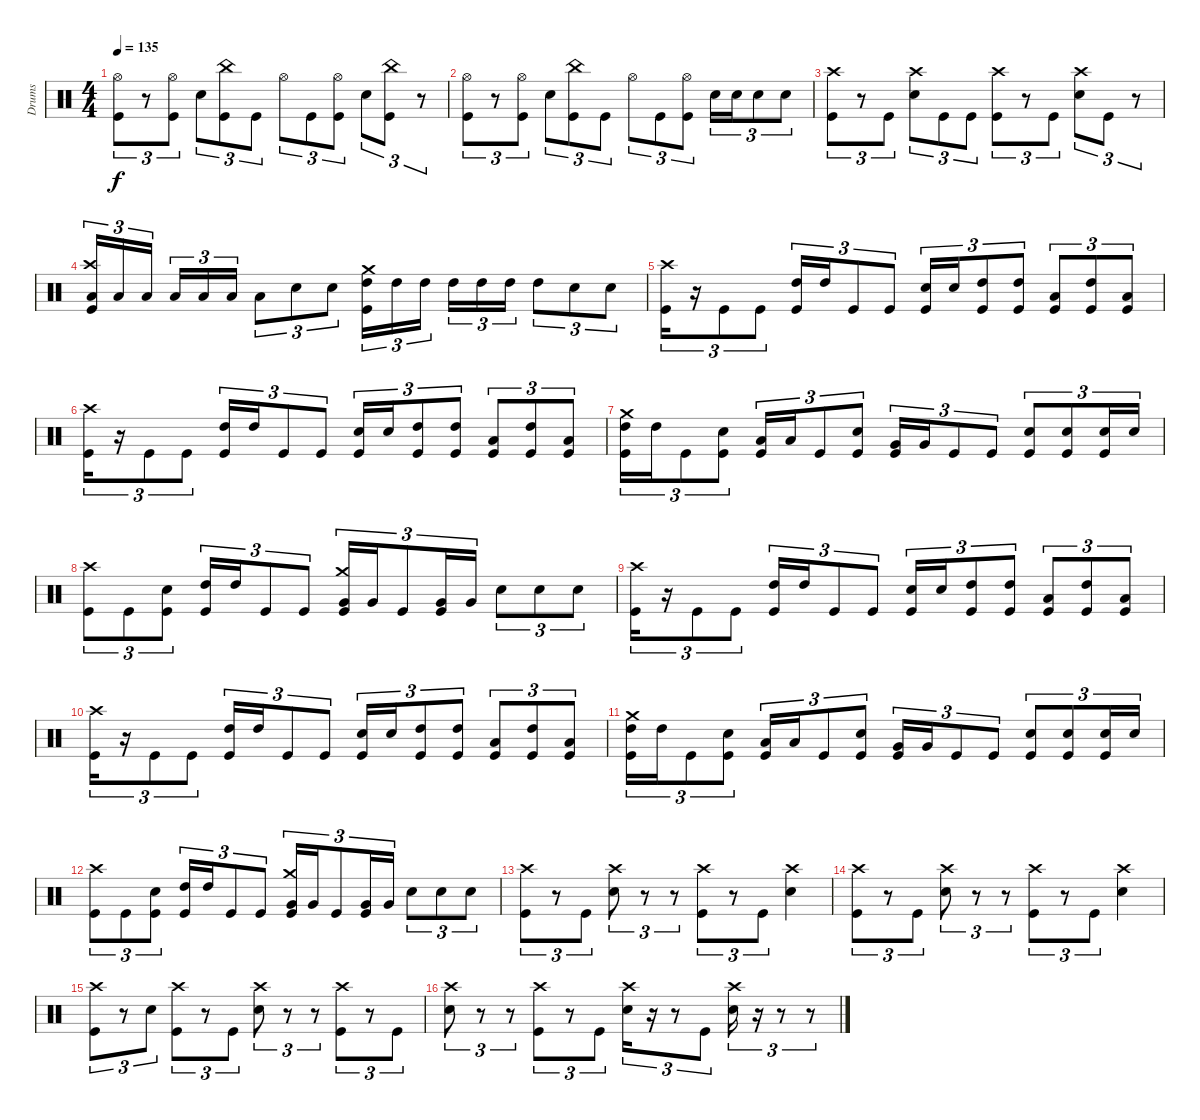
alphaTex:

\track ("Drums" "Drums") {instrument percussion}
\staff {score}
\articulation defaults
\ts (4 4)
\tempo 135
\clef neutral
\ks c
("Kick (hit)" "Hi-Hat (open)").8{tu (3 2) dy f} r.8{tu (3 2)} ("Kick (hit)" "Hi-Hat (open)").8{tu (3 2)} "Snare (hit) 2".8{tu (3 2)} ("Kick (hit)" "China (hit)").8{tu (3 2)} "Kick (hit)".8{tu (3 2)} "Hi-Hat (open)".8{tu (3 2)} "Kick (hit)".8{tu (3 2)} ("Kick (hit)" "Hi-Hat (open)").8{tu (3 2)} "Snare (hit) 2".8{tu (3 2)} ("Kick (hit)" "China (hit)").8{tu (3 2)} r.8{tu (3 2)} |
("Kick (hit)" "Hi-Hat (open)").8{tu (3 2)} r.8{tu (3 2)} ("Kick (hit)" "Hi-Hat (open)").8{tu (3 2)} "Snare (hit) 2".8{tu (3 2)} ("Kick (hit)" "China (hit)").8{tu (3 2)} "Kick (hit)".8{tu (3 2)} "Hi-Hat (open)".8{tu (3 2)} "Kick (hit)".8{tu (3 2)} ("Kick (hit)" "Hi-Hat (open)").8{tu (3 2)} "Snare (hit) 2".16{tu (3 2)} "Snare (hit) 2".16{tu (3 2)} "Snare (hit) 2".8{tu (3 2)} "Snare (hit) 2".8{tu (3 2)} |
("Kick (hit)" "Crash high (hit)").8{tu (3 2)} r.8{tu (3 2)} "Kick (hit)".8{tu (3 2)} ("Snare (hit) 2" "Crash high (hit)").8{tu (3 2)} "Kick (hit)".8{tu (3 2)} "Kick (hit)".8{tu (3 2)} ("Kick (hit)" "Crash high (hit)").8{tu (3 2)} r.8{tu (3 2)} "Kick (hit)".8{tu (3 2)} ("Snare (hit) 2" "Crash high (hit)").8{tu (3 2)} "Kick (hit)".8{tu (3 2)} r.8{tu (3 2)} |
("Kick (hit)" "Low Tom (hit)" "Crash high (hit)").16{tu (3 2)} "Low Tom (hit)".16{tu (3 2)} "Low Tom (hit)".16{tu (3 2)} "Low Tom (hit)".16{tu (3 2)} "Low Tom (hit)".16{tu (3 2)} "Low Tom (hit)".16{tu (3 2)} "Low Tom (hit)".8{tu (3 2)} "Snare (hit) 2".8{tu (3 2)} "Snare (hit) 2".8{tu (3 2)} ("Kick (hit)" "High Tom (hit)" "Crash medium (hit)").16{tu (3 2)} "High Tom (hit)".16{tu (3 2)} "High Tom (hit)".16{tu (3 2)} "High Tom (hit)".16{tu (3 2)} "High Tom (hit)".16{tu (3 2)} "High Tom (hit)".16{tu (3 2)} "High Tom (hit)".8{tu (3 2)} "Snare (hit) 2".8{tu (3 2)} "Snare (hit) 2".8{tu (3 2)} |
("Kick (hit)" "Crash high (hit)").16{tu (3 2)} r.16{tu (3 2)} "Kick (hit)".8{tu (3 2)} "Kick (hit)".8{tu (3 2)} ("Kick (hit)" "High Tom (hit)").16{tu (3 2)} "High Tom (hit)".16{tu (3 2)} "Kick (hit)".8{tu (3 2)} "Kick (hit)".8{tu (3 2)} ("Kick (hit)" "Snare (hit) 2").16{tu (3 2)} "Snare (hit) 2".16{tu (3 2)} ("Kick (hit)" "High Tom (hit)").8{tu (3 2)} ("Kick (hit)" "High Tom (hit)").8{tu (3 2)} ("Kick (hit)" "Low Tom (hit)").8{tu (3 2)} ("Kick (hit)" "High Tom (hit)").8{tu (3 2)} ("Kick (hit)" "Low Tom (hit)").8{tu (3 2)} |
("Kick (hit)" "Crash high (hit)").16{tu (3 2)} r.16{tu (3 2)} "Kick (hit)".8{tu (3 2)} "Kick (hit)".8{tu (3 2)} ("Kick (hit)" "High Tom (hit)").16{tu (3 2)} "High Tom (hit)".16{tu (3 2)} "Kick (hit)".8{tu (3 2)} "Kick (hit)".8{tu (3 2)} ("Kick (hit)" "Snare (hit) 2").16{tu (3 2)} "Snare (hit) 2".16{tu (3 2)} ("Kick (hit)" "High Tom (hit)").8{tu (3 2)} ("Kick (hit)" "High Tom (hit)").8{tu (3 2)} ("Kick (hit)" "Low Tom (hit)").8{tu (3 2)} ("Kick (hit)" "High Tom (hit)").8{tu (3 2)} ("Kick (hit)" "Low Tom (hit)").8{tu (3 2)} |
("Kick (hit)" "High Tom (hit)" "Crash medium (hit)").16{tu (3 2)} "High Tom (hit)".16{tu (3 2)} "Kick (hit)".8{tu (3 2)} ("Kick (hit)" "Snare (hit) 2").8{tu (3 2)} ("Kick (hit)" "Low Tom (hit)").16{tu (3 2)} "Low Tom (hit)".16{tu (3 2)} "Kick (hit)".8{tu (3 2)} ("Kick (hit)" "Snare (hit) 2").8{tu (3 2)} ("Kick (hit)" "Very Low Tom (hit)").16{tu (3 2)} "Very Low Tom (hit)".16{tu (3 2)} "Kick (hit)".8{tu (3 2)} "Kick (hit)".8{tu (3 2)} ("Kick (hit)" "Snare (hit) 2").8{tu (3 2)} ("Kick (hit)" "Snare (hit) 2").8{tu (3 2)} ("Kick (hit)" "Snare (hit) 2").16{tu (3 2)} "Snare (hit) 2".16{tu (3 2)} |
("Kick (hit)" "Crash high (hit)").8{tu (3 2)} "Kick (hit)".8{tu (3 2)} ("Kick (hit)" "Snare (hit) 2").8{tu (3 2)} ("Kick (hit)" "High Tom (hit)").16{tu (3 2)} "High Tom (hit)".16{tu (3 2)} "Kick (hit)".8{tu (3 2)} "Kick (hit)".8{tu (3 2)} ("Kick (hit)" "Very Low Tom (hit)" "Crash medium (hit)").16{tu (3 2)} "Very Low Tom (hit)".16{tu (3 2)} "Kick (hit)".8{tu (3 2)} ("Kick (hit)" "Very Low Tom (hit)").16{tu (3 2)} "Very Low Tom (hit)".16{tu (3 2)} "Snare (hit) 2".8{tu (3 2)} "Snare (hit) 2".8{tu (3 2)} "Snare (hit) 2".8{tu (3 2)} |
("Kick (hit)" "Crash high (hit)").16{tu (3 2)} r.16{tu (3 2)} "Kick (hit)".8{tu (3 2)} "Kick (hit)".8{tu (3 2)} ("Kick (hit)" "High Tom (hit)").16{tu (3 2)} "High Tom (hit)".16{tu (3 2)} "Kick (hit)".8{tu (3 2)} "Kick (hit)".8{tu (3 2)} ("Kick (hit)" "Snare (hit) 2").16{tu (3 2)} "Snare (hit) 2".16{tu (3 2)} ("Kick (hit)" "High Tom (hit)").8{tu (3 2)} ("Kick (hit)" "High Tom (hit)").8{tu (3 2)} ("Kick (hit)" "Low Tom (hit)").8{tu (3 2)} ("Kick (hit)" "High Tom (hit)").8{tu (3 2)} ("Kick (hit)" "Low Tom (hit)").8{tu (3 2)} |
("Kick (hit)" "Crash high (hit)").16{tu (3 2)} r.16{tu (3 2)} "Kick (hit)".8{tu (3 2)} "Kick (hit)".8{tu (3 2)} ("Kick (hit)" "High Tom (hit)").16{tu (3 2)} "High Tom (hit)".16{tu (3 2)} "Kick (hit)".8{tu (3 2)} "Kick (hit)".8{tu (3 2)} ("Kick (hit)" "Snare (hit) 2").16{tu (3 2)} "Snare (hit) 2".16{tu (3 2)} ("Kick (hit)" "High Tom (hit)").8{tu (3 2)} ("Kick (hit)" "High Tom (hit)").8{tu (3 2)} ("Kick (hit)" "Low Tom (hit)").8{tu (3 2)} ("Kick (hit)" "High Tom (hit)").8{tu (3 2)} ("Kick (hit)" "Low Tom (hit)").8{tu (3 2)} |
("Kick (hit)" "High Tom (hit)" "Crash medium (hit)").16{tu (3 2)} "High Tom (hit)".16{tu (3 2)} "Kick (hit)".8{tu (3 2)} ("Kick (hit)" "Snare (hit) 2").8{tu (3 2)} ("Kick (hit)" "Low Tom (hit)").16{tu (3 2)} "Low Tom (hit)".16{tu (3 2)} "Kick (hit)".8{tu (3 2)} ("Kick (hit)" "Snare (hit) 2").8{tu (3 2)} ("Kick (hit)" "Very Low Tom (hit)").16{tu (3 2)} "Very Low Tom (hit)".16{tu (3 2)} "Kick (hit)".8{tu (3 2)} "Kick (hit)".8{tu (3 2)} ("Kick (hit)" "Snare (hit) 2").8{tu (3 2)} ("Kick (hit)" "Snare (hit) 2").8{tu (3 2)} ("Kick (hit)" "Snare (hit) 2").16{tu (3 2)} "Snare (hit) 2".16{tu (3 2)} |
("Kick (hit)" "Crash high (hit)").8{tu (3 2)} "Kick (hit)".8{tu (3 2)} ("Kick (hit)" "Snare (hit) 2").8{tu (3 2)} ("Kick (hit)" "High Tom (hit)").16{tu (3 2)} "High Tom (hit)".16{tu (3 2)} "Kick (hit)".8{tu (3 2)} "Kick (hit)".8{tu (3 2)} ("Kick (hit)" "Very Low Tom (hit)" "Crash medium (hit)").16{tu (3 2)} "Very Low Tom (hit)".16{tu (3 2)} "Kick (hit)".8{tu (3 2)} ("Kick (hit)" "Very Low Tom (hit)").16{tu (3 2)} "Very Low Tom (hit)".16{tu (3 2)} "Snare (hit) 2".8{tu (3 2)} "Snare (hit) 2".8{tu (3 2)} "Snare (hit) 2".8{tu (3 2)} |
("Kick (hit)" "Crash high (hit)").8{tu (3 2)} r.8{tu (3 2)} "Kick (hit)".8{tu (3 2)} ("Snare (hit) 2" "Crash high (hit)").8{tu (3 2)} r.8{tu (3 2)} r.8{tu (3 2)} ("Kick (hit)" "Crash high (hit)").8{tu (3 2)} r.8{tu (3 2)} "Kick (hit)".8{tu (3 2)} ("Snare (hit) 2" "Crash high (hit)").4 |
("Kick (hit)" "Crash high (hit)").8{tu (3 2)} r.8{tu (3 2)} "Kick (hit)".8{tu (3 2)} ("Snare (hit) 2" "Crash high (hit)").8{tu (3 2)} r.8{tu (3 2)} r.8{tu (3 2)} ("Kick (hit)" "Crash high (hit)").8{tu (3 2)} r.8{tu (3 2)} "Kick (hit)".8{tu (3 2)} ("Snare (hit) 2" "Crash high (hit)").4 |
("Kick (hit)" "Crash high (hit)").8{tu (3 2)} r.8{tu (3 2)} "Snare (hit) 2".8{tu (3 2)} ("Kick (hit)" "Crash high (hit)").8{tu (3 2)} r.8{tu (3 2)} "Kick (hit)".8{tu (3 2)} ("Snare (hit) 2" "Crash high (hit)").8{tu (3 2)} r.8{tu (3 2)} r.8{tu (3 2)} ("Kick (hit)" "Crash high (hit)").8{tu (3 2)} r.8{tu (3 2)} "Kick (hit)".8{tu (3 2)} |
("Snare (hit) 2" "Crash high (hit)").8{tu (3 2)} r.8{tu (3 2)} r.8{tu (3 2)} ("Kick (hit)" "Crash high (hit)").8{tu (3 2)} r.8{tu (3 2)} "Kick (hit)".8{tu (3 2)} ("Snare (hit) 2" "Crash high (hit)").16{tu (3 2)} r.16{tu (3 2)} r.8{tu (3 2)} "Kick (hit)".8{tu (3 2)} ("Snare (hit) 2" "Crash high (hit)").16{tu (3 2)} r.16{tu (3 2)} r.8{tu (3 2)} r.8{tu (3 2)}
